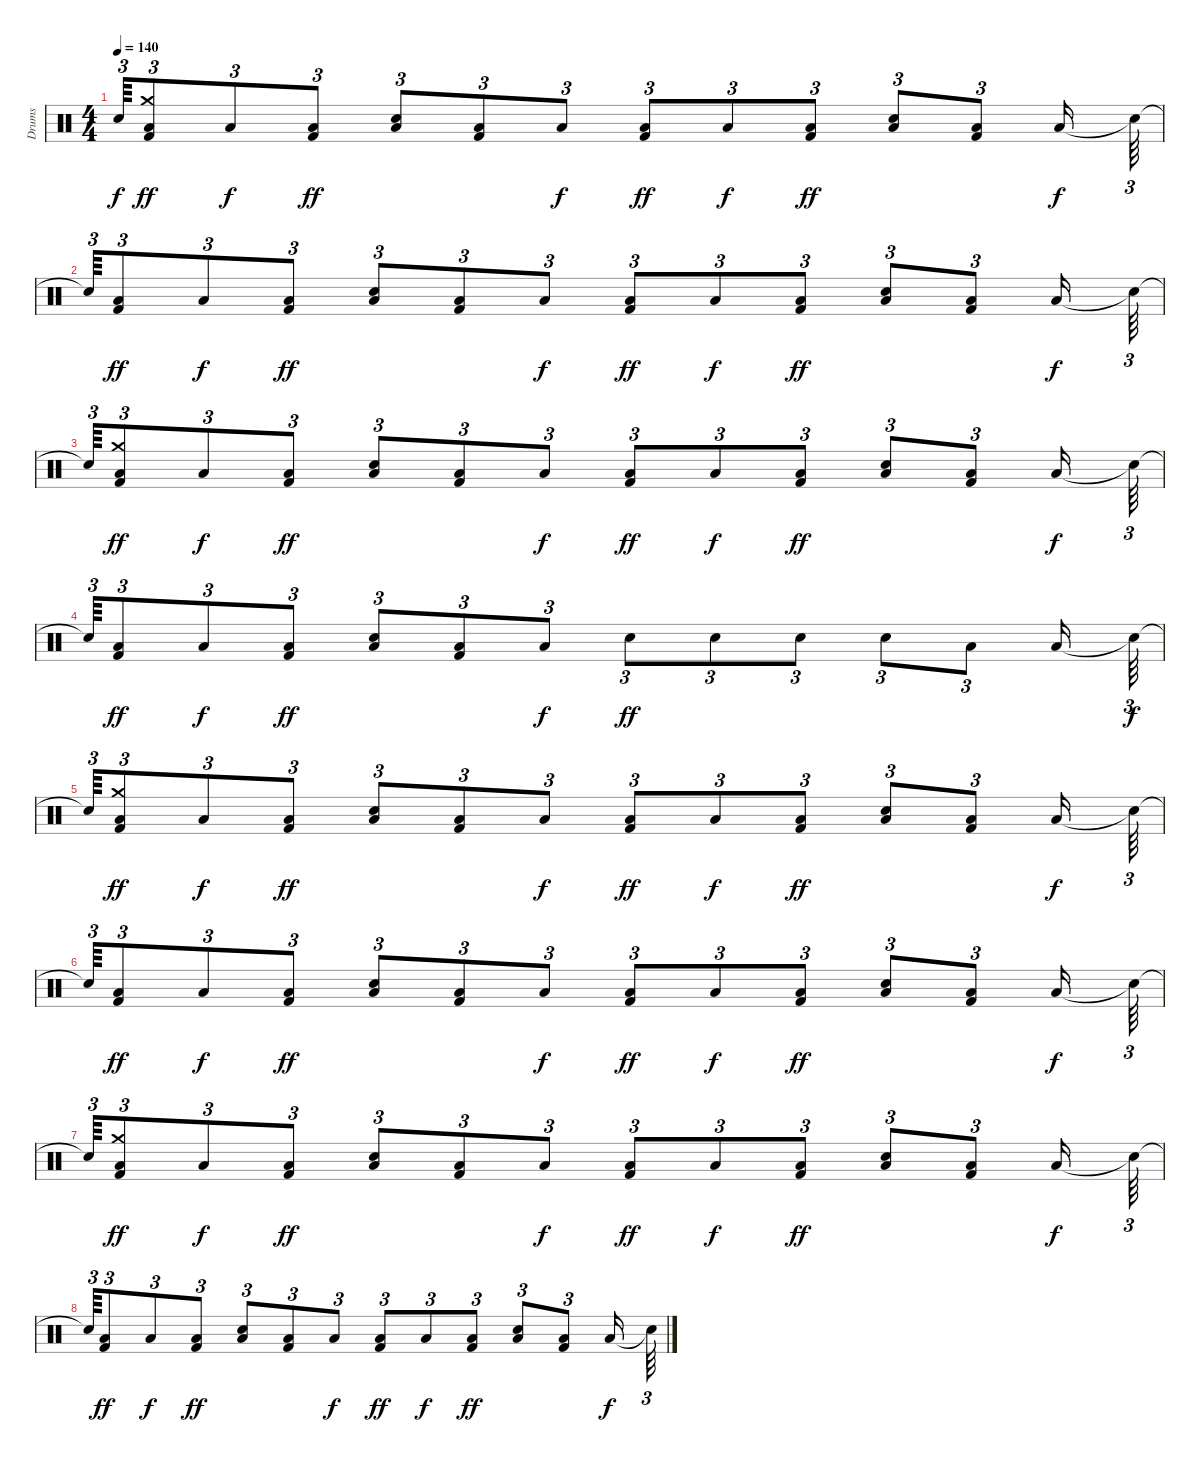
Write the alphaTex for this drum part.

\track ("Drums" "Drums") {instrument percussion}
\staff {score}
\articulation defaults
\ts (4 4)
\tempo 140
\clef neutral
\ks c "Snare (hit)"{t}.64{tu (3 2) dy f}
("Kick (hit) 2" "Crash medium (hit)" "Low Floor Tom (hit)").8{tu (3 2) dy ff} "Low Floor Tom (hit)".8{tu (3 2) dy f} ("Kick (hit) 2" "Low Floor Tom (hit)").8{tu (3 2) dy ff} ("Snare (hit) 2" "Low Floor Tom (hit)").8{tu (3 2)} ("Kick (hit) 2" "Low Floor Tom (hit)").8{tu (3 2)} "Low Floor Tom (hit)".8{tu (3 2) dy f} ("Kick (hit) 2" "Low Floor Tom (hit)").8{tu (3 2) dy ff} "Low Floor Tom (hit)".8{tu (3 2) dy f} ("Kick (hit) 2" "Low Floor Tom (hit)").8{tu (3 2) dy ff} ("Snare (hit) 2" "Low Floor Tom (hit)").8{tu (3 2)} ("Kick (hit) 2" "Low Floor Tom (hit)").8{tu (3 2)} "Low Floor Tom (hit)".16{dy f} "Snare (hit)"{t}.64{tu (3 2)} |
"Snare (hit)"{t}.64{tu (3 2)} ("Kick (hit) 2" "Low Floor Tom (hit)").8{tu (3 2) dy ff} "Low Floor Tom (hit)".8{tu (3 2) dy f} ("Kick (hit) 2" "Low Floor Tom (hit)").8{tu (3 2) dy ff} ("Snare (hit) 2" "Low Floor Tom (hit)").8{tu (3 2)} ("Kick (hit) 2" "Low Floor Tom (hit)").8{tu (3 2)} "Low Floor Tom (hit)".8{tu (3 2) dy f} ("Kick (hit) 2" "Low Floor Tom (hit)").8{tu (3 2) dy ff} "Low Floor Tom (hit)".8{tu (3 2) dy f} ("Kick (hit) 2" "Low Floor Tom (hit)").8{tu (3 2) dy ff} ("Snare (hit) 2" "Low Floor Tom (hit)").8{tu (3 2)} ("Kick (hit) 2" "Low Floor Tom (hit)").8{tu (3 2)} "Low Floor Tom (hit)".16{dy f} "Snare (hit)"{t}.64{tu (3 2)} |
"Snare (hit)"{t}.64{tu (3 2)} ("Kick (hit) 2" "Crash medium (hit)" "Low Floor Tom (hit)").8{tu (3 2) dy ff} "Low Floor Tom (hit)".8{tu (3 2) dy f} ("Kick (hit) 2" "Low Floor Tom (hit)").8{tu (3 2) dy ff} ("Snare (hit) 2" "Low Floor Tom (hit)").8{tu (3 2)} ("Kick (hit) 2" "Low Floor Tom (hit)").8{tu (3 2)} "Low Floor Tom (hit)".8{tu (3 2) dy f} ("Kick (hit) 2" "Low Floor Tom (hit)").8{tu (3 2) dy ff} "Low Floor Tom (hit)".8{tu (3 2) dy f} ("Kick (hit) 2" "Low Floor Tom (hit)").8{tu (3 2) dy ff} ("Snare (hit) 2" "Low Floor Tom (hit)").8{tu (3 2)} ("Kick (hit) 2" "Low Floor Tom (hit)").8{tu (3 2)} "Low Floor Tom (hit)".16{dy f} "Snare (hit)"{t}.64{tu (3 2)} |
"Snare (hit)"{t}.64{tu (3 2)} ("Kick (hit) 2" "Low Floor Tom (hit)").8{tu (3 2) dy ff} "Low Floor Tom (hit)".8{tu (3 2) dy f} ("Kick (hit) 2" "Low Floor Tom (hit)").8{tu (3 2) dy ff} ("Snare (hit) 2" "Low Floor Tom (hit)").8{tu (3 2)} ("Kick (hit) 2" "Low Floor Tom (hit)").8{tu (3 2)} "Low Floor Tom (hit)".8{tu (3 2) dy f} "Snare (hit) 2".8{tu (3 2) dy ff} "Snare (hit) 2".8{tu (3 2)} "Snare (hit) 2".8{tu (3 2)} "Snare (hit) 2".8{tu (3 2)} "Low Tom (hit)".8{tu (3 2)} "Low Floor Tom (hit)".16 "Snare (hit)"{t}.64{tu (3 2) dy f} |
"Snare (hit)"{t}.64{tu (3 2)} ("Kick (hit) 2" "Crash medium (hit)" "Low Floor Tom (hit)").8{tu (3 2) dy ff} "Low Floor Tom (hit)".8{tu (3 2) dy f} ("Kick (hit) 2" "Low Floor Tom (hit)").8{tu (3 2) dy ff} ("Snare (hit) 2" "Low Floor Tom (hit)").8{tu (3 2)} ("Kick (hit) 2" "Low Floor Tom (hit)").8{tu (3 2)} "Low Floor Tom (hit)".8{tu (3 2) dy f} ("Kick (hit) 2" "Low Floor Tom (hit)").8{tu (3 2) dy ff} "Low Floor Tom (hit)".8{tu (3 2) dy f} ("Kick (hit) 2" "Low Floor Tom (hit)").8{tu (3 2) dy ff} ("Snare (hit) 2" "Low Floor Tom (hit)").8{tu (3 2)} ("Kick (hit) 2" "Low Floor Tom (hit)").8{tu (3 2)} "Low Floor Tom (hit)".16{dy f} "Snare (hit)"{t}.64{tu (3 2)} |
"Snare (hit)"{t}.64{tu (3 2)} ("Kick (hit) 2" "Low Floor Tom (hit)").8{tu (3 2) dy ff} "Low Floor Tom (hit)".8{tu (3 2) dy f} ("Kick (hit) 2" "Low Floor Tom (hit)").8{tu (3 2) dy ff} ("Snare (hit) 2" "Low Floor Tom (hit)").8{tu (3 2)} ("Kick (hit) 2" "Low Floor Tom (hit)").8{tu (3 2)} "Low Floor Tom (hit)".8{tu (3 2) dy f} ("Kick (hit) 2" "Low Floor Tom (hit)").8{tu (3 2) dy ff} "Low Floor Tom (hit)".8{tu (3 2) dy f} ("Kick (hit) 2" "Low Floor Tom (hit)").8{tu (3 2) dy ff} ("Snare (hit) 2" "Low Floor Tom (hit)").8{tu (3 2)} ("Kick (hit) 2" "Low Floor Tom (hit)").8{tu (3 2)} "Low Floor Tom (hit)".16{dy f} "Snare (hit)"{t}.64{tu (3 2)} |
"Snare (hit)"{t}.64{tu (3 2)} ("Kick (hit) 2" "Crash medium (hit)" "Low Floor Tom (hit)").8{tu (3 2) dy ff} "Low Floor Tom (hit)".8{tu (3 2) dy f} ("Kick (hit) 2" "Low Floor Tom (hit)").8{tu (3 2) dy ff} ("Snare (hit) 2" "Low Floor Tom (hit)").8{tu (3 2)} ("Kick (hit) 2" "Low Floor Tom (hit)").8{tu (3 2)} "Low Floor Tom (hit)".8{tu (3 2) dy f} ("Kick (hit) 2" "Low Floor Tom (hit)").8{tu (3 2) dy ff} "Low Floor Tom (hit)".8{tu (3 2) dy f} ("Kick (hit) 2" "Low Floor Tom (hit)").8{tu (3 2) dy ff} ("Snare (hit) 2" "Low Floor Tom (hit)").8{tu (3 2)} ("Kick (hit) 2" "Low Floor Tom (hit)").8{tu (3 2)} "Low Floor Tom (hit)".16{dy f} "Snare (hit)"{t}.64{tu (3 2)} |
"Snare (hit)"{t}.64{tu (3 2)} ("Kick (hit) 2" "Low Floor Tom (hit)").8{tu (3 2) dy ff} "Low Floor Tom (hit)".8{tu (3 2) dy f} ("Kick (hit) 2" "Low Floor Tom (hit)").8{tu (3 2) dy ff} ("Snare (hit) 2" "Low Floor Tom (hit)").8{tu (3 2)} ("Kick (hit) 2" "Low Floor Tom (hit)").8{tu (3 2)} "Low Floor Tom (hit)".8{tu (3 2) dy f} ("Kick (hit) 2" "Low Floor Tom (hit)").8{tu (3 2) dy ff} "Low Floor Tom (hit)".8{tu (3 2) dy f} ("Kick (hit) 2" "Low Floor Tom (hit)").8{tu (3 2) dy ff} ("Snare (hit) 2" "Low Floor Tom (hit)").8{tu (3 2)} ("Kick (hit) 2" "Low Floor Tom (hit)").8{tu (3 2)} "Low Floor Tom (hit)".16{dy f} "Snare (hit)"{t}.64{tu (3 2)}
